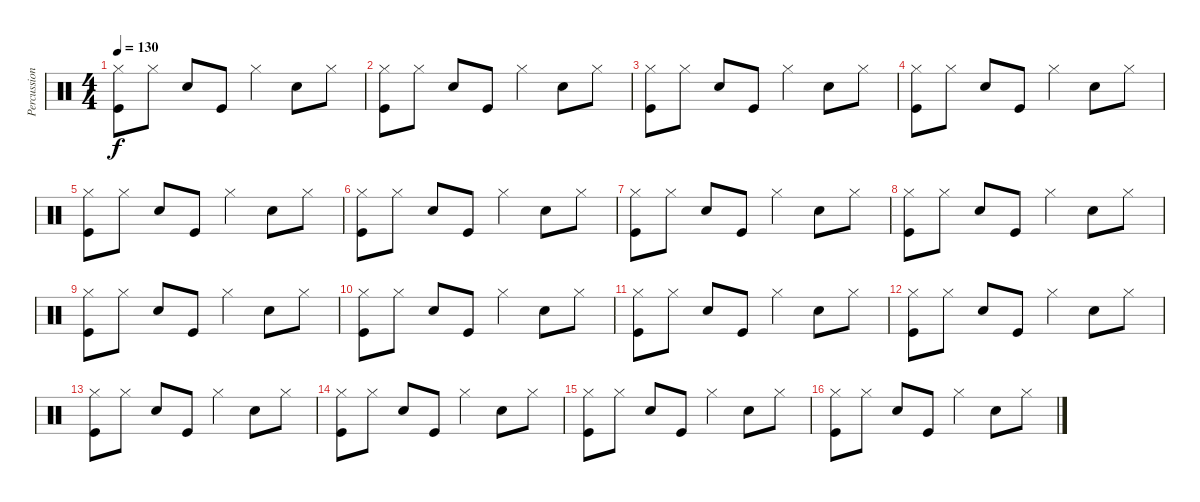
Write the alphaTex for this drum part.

\track ("Percussion" "Percussion") {instrument percussion}
\staff {score}
\articulation defaults
\ts (4 4)
\tempo 130
\clef neutral
\ks c
("Hi-Hat (closed)" "Kick (hit)").8{dy f} "Hi-Hat (closed)".8 "Snare (hit) 2".8 "Kick (hit)".8 "Hi-Hat (closed)".4 "Snare (hit) 2".8 "Hi-Hat (closed)".8 |
("Hi-Hat (closed)" "Kick (hit)").8 "Hi-Hat (closed)".8 "Snare (hit) 2".8 "Kick (hit)".8 "Hi-Hat (closed)".4 "Snare (hit) 2".8 "Hi-Hat (closed)".8 |
("Hi-Hat (closed)" "Kick (hit)").8 "Hi-Hat (closed)".8 "Snare (hit) 2".8 "Kick (hit)".8 "Hi-Hat (closed)".4 "Snare (hit) 2".8 "Hi-Hat (closed)".8 |
("Hi-Hat (closed)" "Kick (hit)").8 "Hi-Hat (closed)".8 "Snare (hit) 2".8 "Kick (hit)".8 "Hi-Hat (closed)".4 "Snare (hit) 2".8 "Hi-Hat (closed)".8 |
("Hi-Hat (closed)" "Kick (hit)").8 "Hi-Hat (closed)".8 "Snare (hit) 2".8 "Kick (hit)".8 "Hi-Hat (closed)".4 "Snare (hit) 2".8 "Hi-Hat (closed)".8 |
("Hi-Hat (closed)" "Kick (hit)").8 "Hi-Hat (closed)".8 "Snare (hit) 2".8 "Kick (hit)".8 "Hi-Hat (closed)".4 "Snare (hit) 2".8 "Hi-Hat (closed)".8 |
("Hi-Hat (closed)" "Kick (hit)").8 "Hi-Hat (closed)".8 "Snare (hit) 2".8 "Kick (hit)".8 "Hi-Hat (closed)".4 "Snare (hit) 2".8 "Hi-Hat (closed)".8 |
("Hi-Hat (closed)" "Kick (hit)").8 "Hi-Hat (closed)".8 "Snare (hit) 2".8 "Kick (hit)".8 "Hi-Hat (closed)".4 "Snare (hit) 2".8 "Hi-Hat (closed)".8 |
("Hi-Hat (closed)" "Kick (hit)").8 "Hi-Hat (closed)".8 "Snare (hit) 2".8 "Kick (hit)".8 "Hi-Hat (closed)".4 "Snare (hit) 2".8 "Hi-Hat (closed)".8 |
("Hi-Hat (closed)" "Kick (hit)").8 "Hi-Hat (closed)".8 "Snare (hit) 2".8 "Kick (hit)".8 "Hi-Hat (closed)".4 "Snare (hit) 2".8 "Hi-Hat (closed)".8 |
("Hi-Hat (closed)" "Kick (hit)").8 "Hi-Hat (closed)".8 "Snare (hit) 2".8 "Kick (hit)".8 "Hi-Hat (closed)".4 "Snare (hit) 2".8 "Hi-Hat (closed)".8 |
("Hi-Hat (closed)" "Kick (hit)").8 "Hi-Hat (closed)".8 "Snare (hit) 2".8 "Kick (hit)".8 "Hi-Hat (closed)".4 "Snare (hit) 2".8 "Hi-Hat (closed)".8 |
("Hi-Hat (closed)" "Kick (hit)").8 "Hi-Hat (closed)".8 "Snare (hit) 2".8 "Kick (hit)".8 "Hi-Hat (closed)".4 "Snare (hit) 2".8 "Hi-Hat (closed)".8 |
("Hi-Hat (closed)" "Kick (hit)").8 "Hi-Hat (closed)".8 "Snare (hit) 2".8 "Kick (hit)".8 "Hi-Hat (closed)".4 "Snare (hit) 2".8 "Hi-Hat (closed)".8 |
("Hi-Hat (closed)" "Kick (hit)").8 "Hi-Hat (closed)".8 "Snare (hit) 2".8 "Kick (hit)".8 "Hi-Hat (closed)".4 "Snare (hit) 2".8 "Hi-Hat (closed)".8 |
("Hi-Hat (closed)" "Kick (hit)").8 "Hi-Hat (closed)".8 "Snare (hit) 2".8 "Kick (hit)".8 "Hi-Hat (closed)".4 "Snare (hit) 2".8 "Hi-Hat (closed)".8
